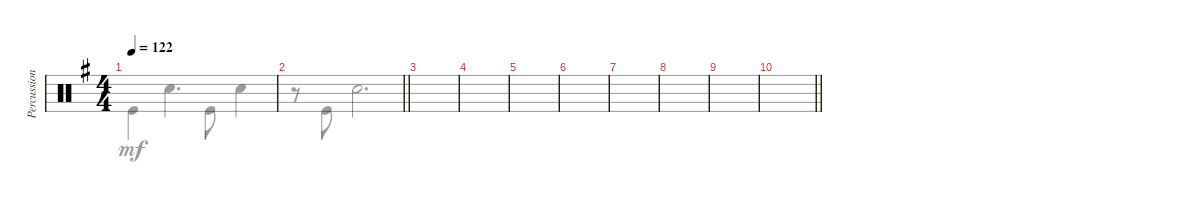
\track ("Percussion" "Percussion") {instrument percussion}
\staff {score}
\articulation defaults
\voice
\ts (4 4)
\tempo 122
\clef neutral
\ks eminor
|
\barLineRight lightlight
|
|
|
|
|
|
|
|
\barLineRight lightlight
|
|
|
|
|
|
\voice
\clef neutral
\ks eminor "Kick (hit)".4{dy mf} "Snare (hit) 2".4{d} "Kick (hit)".8 "Snare (hit) 2".4
|
\barLineRight lightlight
r.8 "Kick (hit)".8 "Snare (hit) 2".2{d} |
|
|
|
|
|
|
|
\barLineRight lightlight
|
|
|
|
|
|
